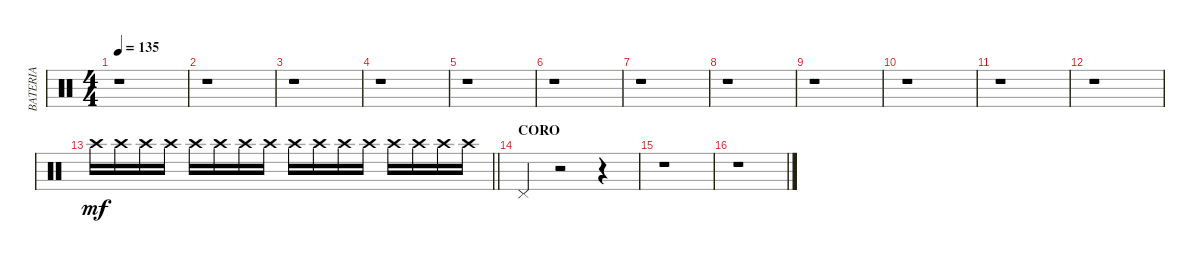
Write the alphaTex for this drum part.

\track ("BATERIA" "BATERIA") {instrument percussion}
\staff {score}
\articulation defaults
\ts (4 4)
\tempo 135
\clef neutral
\ks c
r.1{dy mf} |
r.1 |
r.1 |
r.1 |
r.1 |
r.1 |
r.1 |
r.1 |
r.1 |
r.1 |
r.1 |
r.1{volume 0} |
\barLineRight lightlight "Crash high (hit)".16{volume 10} "Crash high (hit)".16 "Crash high (hit)".16 "Crash high (hit)".16 "Crash high (hit)".16 "Crash high (hit)".16 "Crash high (hit)".16 "Crash high (hit)".16 "Crash high (hit)".16 "Crash high (hit)".16 "Crash high (hit)".16 "Crash high (hit)".16 "Crash high (hit)".16 "Crash high (hit)".16 "Crash high (hit)".16 "Crash high (hit)".16
|
\section ("" "CORO")
"Pedal Hi-Hat (hit)".4 r.2 r.4 |
r.1{volume 13} |
r.1
